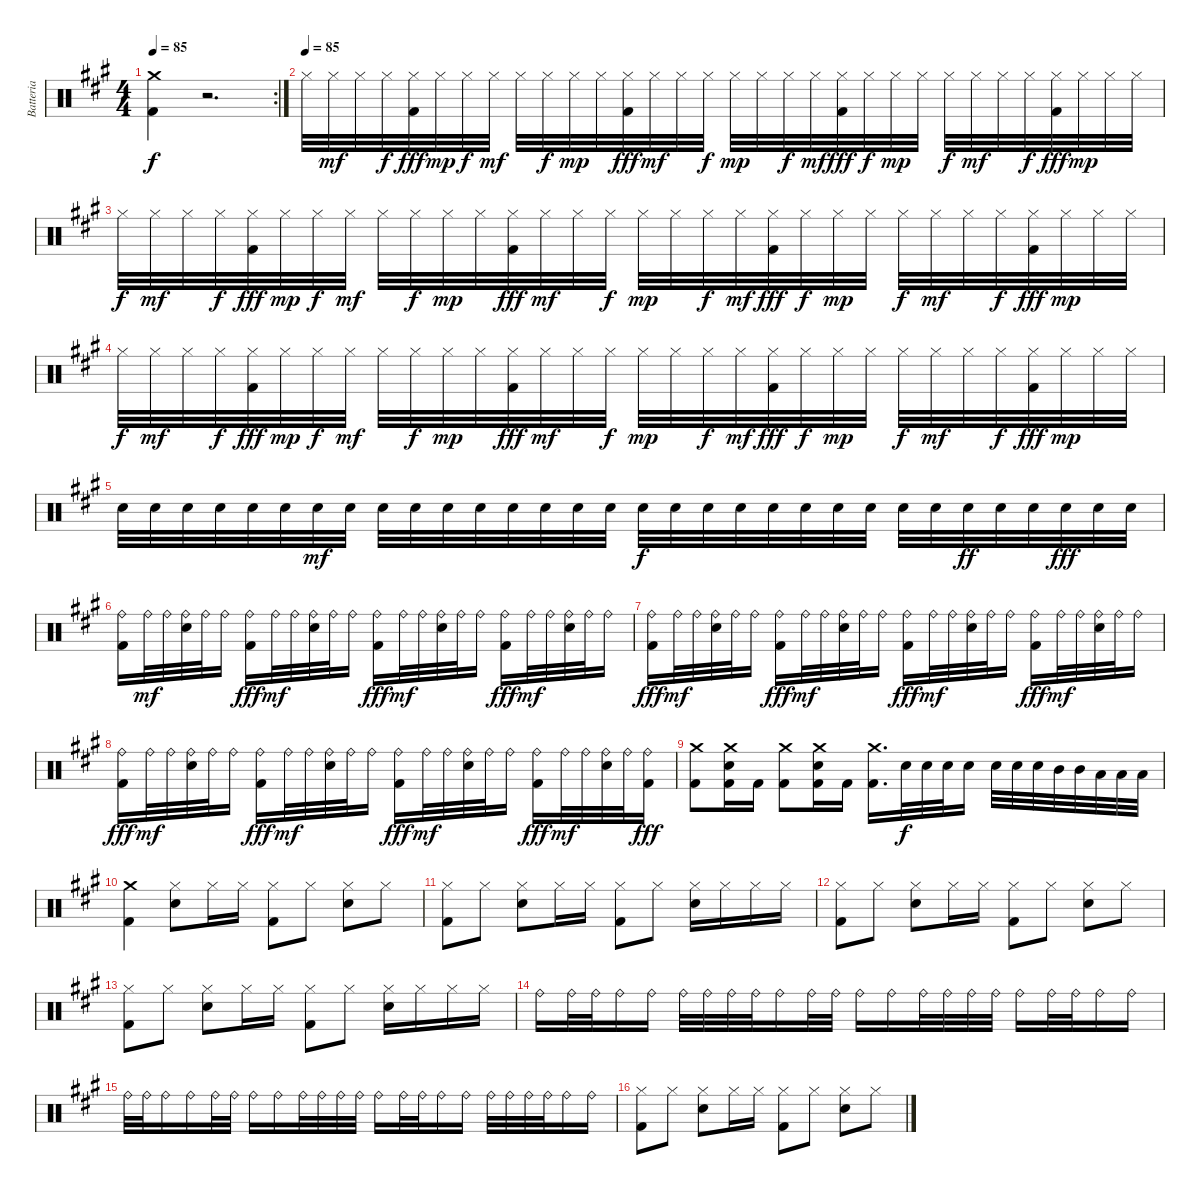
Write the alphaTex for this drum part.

\track ("Batteria" "Batteria") {instrument percussion}
\staff {score}
\articulation defaults
\rc 2
\ts (4 4)
\tempo 85
\clef neutral
\ks a
("Crash medium (hit)" "Kick (hit) 2").4{dy f} r.2{d} |
\tempo (85)
"Hi-Hat (closed)".32 "Hi-Hat (closed)".32{dy mf} "Hi-Hat (closed)".32 "Hi-Hat (closed)".32{dy f} ("Hi-Hat (closed)" "Kick (hit) 2").32{dy fff} "Hi-Hat (closed)".32{dy mp} "Hi-Hat (closed)".32{dy f} "Hi-Hat (closed)".32{dy mf} "Hi-Hat (closed)".32 "Hi-Hat (closed)".32{dy f} "Hi-Hat (closed)".32{dy mp} "Hi-Hat (closed)".32 ("Hi-Hat (closed)" "Kick (hit) 2").32{dy fff} "Hi-Hat (closed)".32{dy mf} "Hi-Hat (closed)".32 "Hi-Hat (closed)".32{dy f} "Hi-Hat (closed)".32{dy mp} "Hi-Hat (closed)".32 "Hi-Hat (closed)".32{dy f} "Hi-Hat (closed)".32{dy mf} ("Hi-Hat (closed)" "Kick (hit) 2").32{dy fff} "Hi-Hat (closed)".32{dy f} "Hi-Hat (closed)".32{dy mp} "Hi-Hat (closed)".32 "Hi-Hat (closed)".32{dy f} "Hi-Hat (closed)".32{dy mf} "Hi-Hat (closed)".32 "Hi-Hat (closed)".32{dy f} ("Hi-Hat (closed)" "Kick (hit) 2").32{dy fff} "Hi-Hat (closed)".32{dy mp} "Hi-Hat (closed)".32 "Hi-Hat (closed)".32 |
"Hi-Hat (closed)".32{dy f} "Hi-Hat (closed)".32{dy mf} "Hi-Hat (closed)".32 "Hi-Hat (closed)".32{dy f} ("Hi-Hat (closed)" "Kick (hit) 2").32{dy fff} "Hi-Hat (closed)".32{dy mp} "Hi-Hat (closed)".32{dy f} "Hi-Hat (closed)".32{dy mf} "Hi-Hat (closed)".32 "Hi-Hat (closed)".32{dy f} "Hi-Hat (closed)".32{dy mp} "Hi-Hat (closed)".32 ("Hi-Hat (closed)" "Kick (hit) 2").32{dy fff} "Hi-Hat (closed)".32{dy mf} "Hi-Hat (closed)".32 "Hi-Hat (closed)".32{dy f} "Hi-Hat (closed)".32{dy mp} "Hi-Hat (closed)".32 "Hi-Hat (closed)".32{dy f} "Hi-Hat (closed)".32{dy mf} ("Hi-Hat (closed)" "Kick (hit) 2").32{dy fff} "Hi-Hat (closed)".32{dy f} "Hi-Hat (closed)".32{dy mp} "Hi-Hat (closed)".32 "Hi-Hat (closed)".32{dy f} "Hi-Hat (closed)".32{dy mf} "Hi-Hat (closed)".32 "Hi-Hat (closed)".32{dy f} ("Hi-Hat (closed)" "Kick (hit) 2").32{dy fff} "Hi-Hat (closed)".32{dy mp} "Hi-Hat (closed)".32 "Hi-Hat (closed)".32 |
"Hi-Hat (closed)".32{dy f} "Hi-Hat (closed)".32{dy mf} "Hi-Hat (closed)".32 "Hi-Hat (closed)".32{dy f} ("Hi-Hat (closed)" "Kick (hit) 2").32{dy fff} "Hi-Hat (closed)".32{dy mp} "Hi-Hat (closed)".32{dy f} "Hi-Hat (closed)".32{dy mf} "Hi-Hat (closed)".32 "Hi-Hat (closed)".32{dy f} "Hi-Hat (closed)".32{dy mp} "Hi-Hat (closed)".32 ("Hi-Hat (closed)" "Kick (hit) 2").32{dy fff} "Hi-Hat (closed)".32{dy mf} "Hi-Hat (closed)".32 "Hi-Hat (closed)".32{dy f} "Hi-Hat (closed)".32{dy mp} "Hi-Hat (closed)".32 "Hi-Hat (closed)".32{dy f} "Hi-Hat (closed)".32{dy mf} ("Hi-Hat (closed)" "Kick (hit) 2").32{dy fff} "Hi-Hat (closed)".32{dy f} "Hi-Hat (closed)".32{dy mp} "Hi-Hat (closed)".32 "Hi-Hat (closed)".32{dy f} "Hi-Hat (closed)".32{dy mf} "Hi-Hat (closed)".32 "Hi-Hat (closed)".32{dy f} ("Hi-Hat (closed)" "Kick (hit) 2").32{dy fff} "Hi-Hat (closed)".32{dy mp} "Hi-Hat (closed)".32 "Hi-Hat (closed)".32 |
"Electric Snare (hit)".32 "Electric Snare (hit)".32 "Electric Snare (hit)".32 "Electric Snare (hit)".32 "Electric Snare (hit)".32 "Electric Snare (hit)".32 "Electric Snare (hit)".32{dy mf} "Electric Snare (hit)".32 "Electric Snare (hit)".32 "Electric Snare (hit)".32 "Electric Snare (hit)".32 "Electric Snare (hit)".32 "Electric Snare (hit)".32 "Electric Snare (hit)".32 "Electric Snare (hit)".32 "Electric Snare (hit)".32 "Electric Snare (hit)".32{dy f} "Electric Snare (hit)".32 "Electric Snare (hit)".32 "Electric Snare (hit)".32 "Electric Snare (hit)".32 "Electric Snare (hit)".32 "Electric Snare (hit)".32 "Electric Snare (hit)".32 "Electric Snare (hit)".32 "Electric Snare (hit)".32 "Electric Snare (hit)".32{dy ff} "Electric Snare (hit)".32 "Electric Snare (hit)".32 "Electric Snare (hit)".32{dy fff} "Electric Snare (hit)".32 "Electric Snare (hit)".32 |
("Ride (bell)" "Kick (hit) 2").16 "Ride (bell)".32{dy mf} "Ride (bell)".32 ("Ride (bell)" "Electric Snare (hit)").32 "Ride (bell)".32 "Ride (bell)".16 ("Ride (bell)" "Kick (hit) 2").16{dy fff} "Ride (bell)".32{dy mf} "Ride (bell)".32 ("Ride (bell)" "Electric Snare (hit)").32 "Ride (bell)".32 "Ride (bell)".16 ("Ride (bell)" "Kick (hit) 2").16{dy fff} "Ride (bell)".32{dy mf} "Ride (bell)".32 ("Ride (bell)" "Electric Snare (hit)").32 "Ride (bell)".32 "Ride (bell)".16 ("Ride (bell)" "Kick (hit) 2").16{dy fff} "Ride (bell)".32{dy mf} "Ride (bell)".32 ("Ride (bell)" "Electric Snare (hit)").32 "Ride (bell)".32 "Ride (bell)".16 |
("Ride (bell)" "Kick (hit) 2").16{dy fff} "Ride (bell)".32{dy mf} "Ride (bell)".32 ("Ride (bell)" "Electric Snare (hit)").32 "Ride (bell)".32 "Ride (bell)".16 ("Ride (bell)" "Kick (hit) 2").16{dy fff} "Ride (bell)".32{dy mf} "Ride (bell)".32 ("Ride (bell)" "Electric Snare (hit)").32 "Ride (bell)".32 "Ride (bell)".16 ("Ride (bell)" "Kick (hit) 2").16{dy fff} "Ride (bell)".32{dy mf} "Ride (bell)".32 ("Ride (bell)" "Electric Snare (hit)").32 "Ride (bell)".32 "Ride (bell)".16 ("Ride (bell)" "Kick (hit) 2").16{dy fff} "Ride (bell)".32{dy mf} "Ride (bell)".32 ("Ride (bell)" "Electric Snare (hit)").32 "Ride (bell)".32 "Ride (bell)".16 |
("Ride (bell)" "Kick (hit) 2").16{dy fff} "Ride (bell)".32{dy mf} "Ride (bell)".32 ("Ride (bell)" "Electric Snare (hit)").32 "Ride (bell)".32 "Ride (bell)".16 ("Ride (bell)" "Kick (hit) 2").16{dy fff} "Ride (bell)".32{dy mf} "Ride (bell)".32 ("Ride (bell)" "Electric Snare (hit)").32 "Ride (bell)".32 "Ride (bell)".16 ("Ride (bell)" "Kick (hit) 2").16{dy fff} "Ride (bell)".32{dy mf} "Ride (bell)".32 ("Ride (bell)" "Electric Snare (hit)").32 "Ride (bell)".32 "Ride (bell)".16 ("Ride (bell)" "Kick (hit) 2").16{dy fff} "Ride (bell)".32{dy mf} "Ride (bell)".32 ("Ride (bell)" "Electric Snare (hit)").32 "Ride (bell)".32 ("Ride (bell)" "Kick (hit) 2").16{dy fff} |
("Crash medium (hit)" "Kick (hit) 2").8 ("Crash medium (hit)" "Electric Snare (hit)" "Kick (hit) 2").16 "Kick (hit) 2".16 ("Crash medium (hit)" "Kick (hit) 2").8 ("Crash medium (hit)" "Electric Snare (hit)" "Kick (hit) 2").16 "Kick (hit) 2".16 ("Crash medium (hit)" "Kick (hit) 2").16{d} "Electric Snare (hit)".32{dy f} "Electric Snare (hit)".32 "Electric Snare (hit)".32 "Electric Snare (hit)".16 "Electric Snare (hit)".32 "Electric Snare (hit)".32 "Electric Snare (hit)".32 "Mid Tom (hit)".32 "Mid Tom (hit)".32 "Low Tom (hit)".32 "Low Tom (hit)".32 "Low Tom (hit)".32 |
("Crash medium (hit)" "Kick (hit) 2").4 ("Hi-Hat (closed)" "Electric Snare (hit)").8 "Hi-Hat (closed)".16 "Hi-Hat (closed)".16 ("Hi-Hat (closed)" "Kick (hit) 2").8 "Hi-Hat (closed)".8 ("Hi-Hat (closed)" "Electric Snare (hit)").8 "Hi-Hat (closed)".8 |
("Hi-Hat (closed)" "Kick (hit) 2").8 "Hi-Hat (closed)".8 ("Hi-Hat (closed)" "Electric Snare (hit)").8 "Hi-Hat (closed)".16 "Hi-Hat (closed)".16 ("Hi-Hat (closed)" "Kick (hit) 2").8 "Hi-Hat (closed)".8 ("Hi-Hat (closed)" "Electric Snare (hit)").16 "Hi-Hat (closed)".16 "Hi-Hat (closed)".16 "Hi-Hat (closed)".16 |
("Hi-Hat (closed)" "Kick (hit) 2").8 "Hi-Hat (closed)".8 ("Hi-Hat (closed)" "Electric Snare (hit)").8 "Hi-Hat (closed)".16 "Hi-Hat (closed)".16 ("Hi-Hat (closed)" "Kick (hit) 2").8 "Hi-Hat (closed)".8 ("Hi-Hat (closed)" "Electric Snare (hit)").8 "Hi-Hat (closed)".8 |
("Hi-Hat (closed)" "Kick (hit) 2").8 "Hi-Hat (closed)".8 ("Hi-Hat (closed)" "Electric Snare (hit)").8 "Hi-Hat (closed)".16 "Hi-Hat (closed)".16 ("Hi-Hat (closed)" "Kick (hit) 2").8 "Hi-Hat (closed)".8 ("Hi-Hat (closed)" "Electric Snare (hit)").16 "Hi-Hat (closed)".16 "Hi-Hat (closed)".16 "Hi-Hat (closed)".16 |
"Ride (bell)".16 "Ride (bell)".32 "Ride (bell)".32 "Ride (bell)".16 "Ride (bell)".16 "Ride (bell)".32 "Ride (bell)".32 "Ride (bell)".32 "Ride (bell)".32 "Ride (bell)".16 "Ride (bell)".32 "Ride (bell)".32 "Ride (bell)".16 "Ride (bell)".16 "Ride (bell)".32 "Ride (bell)".32 "Ride (bell)".32 "Ride (bell)".32 "Ride (bell)".16 "Ride (bell)".32 "Ride (bell)".32 "Ride (bell)".16 "Ride (bell)".16 |
"Ride (bell)".32 "Ride (bell)".32 "Ride (bell)".16 "Ride (bell)".16 "Ride (bell)".32 "Ride (bell)".32 "Ride (bell)".16 "Ride (bell)".16 "Ride (bell)".32 "Ride (bell)".32 "Ride (bell)".32 "Ride (bell)".32 "Ride (bell)".16 "Ride (bell)".32 "Ride (bell)".32 "Ride (bell)".16 "Ride (bell)".16 "Ride (bell)".32 "Ride (bell)".32 "Ride (bell)".32 "Ride (bell)".32 "Ride (bell)".16 "Ride (bell)".16 |
("Hi-Hat (closed)" "Kick (hit) 2").8 "Hi-Hat (closed)".8 ("Hi-Hat (closed)" "Electric Snare (hit)").8 "Hi-Hat (closed)".16 "Hi-Hat (closed)".16 ("Hi-Hat (closed)" "Kick (hit) 2").8 "Hi-Hat (closed)".8 ("Hi-Hat (closed)" "Electric Snare (hit)").8 "Hi-Hat (closed)".8
